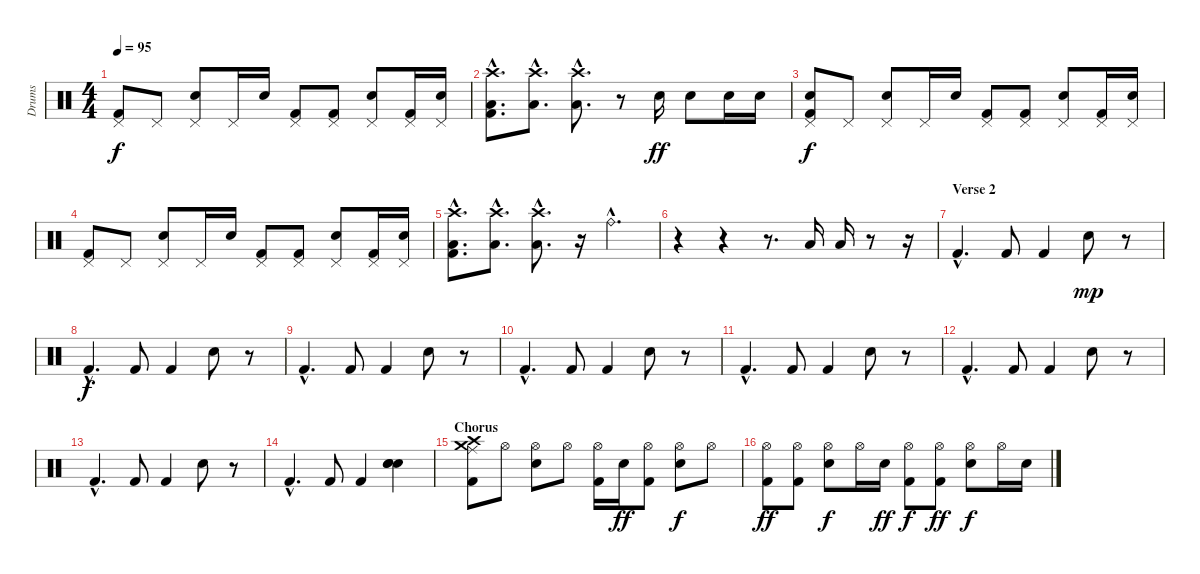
\track ("Drums" "Drums") {instrument percussion}
\staff {score}
\articulation defaults
\ts (4 4)
\tempo 95
\clef neutral
\ks c
("Pedal Hi-Hat (hit)" "Kick (hit) 2").8{dy f} "Pedal Hi-Hat (hit)".8 ("Pedal Hi-Hat (hit)" "Electric Snare (hit)").8 "Pedal Hi-Hat (hit)".16 "Electric Snare (hit)".16 ("Pedal Hi-Hat (hit)" "Kick (hit) 2").8 ("Pedal Hi-Hat (hit)" "Kick (hit) 2").8 ("Pedal Hi-Hat (hit)" "Electric Snare (hit)").8 ("Pedal Hi-Hat (hit)" "Kick (hit) 2").16 ("Pedal Hi-Hat (hit)" "Electric Snare (hit)").16 |
("Crash high (hit)"{hac} "Low Tom (hit)"{hac} "Kick (hit) 2"{hac}).8{d} ("Crash high (hit)"{hac} "Low Tom (hit)"{hac}).8{d} ("Crash high (hit)"{hac} "Low Tom (hit)"{hac}).8{d} r.8 "Electric Snare (hit)".16{dy ff} "Electric Snare (hit)".8 "Electric Snare (hit)".16 "Electric Snare (hit)".16 |
("Pedal Hi-Hat (hit)" "Electric Snare (hit)" "Kick (hit) 2").8{dy f} "Pedal Hi-Hat (hit)".8 ("Pedal Hi-Hat (hit)" "Electric Snare (hit)").8 "Pedal Hi-Hat (hit)".16 "Electric Snare (hit)".16 ("Pedal Hi-Hat (hit)" "Kick (hit) 2").8 ("Pedal Hi-Hat (hit)" "Kick (hit) 2").8 ("Pedal Hi-Hat (hit)" "Electric Snare (hit)").8 ("Pedal Hi-Hat (hit)" "Kick (hit) 2").16 ("Pedal Hi-Hat (hit)" "Electric Snare (hit)").16 |
("Pedal Hi-Hat (hit)" "Kick (hit) 2").8 "Pedal Hi-Hat (hit)".8 ("Pedal Hi-Hat (hit)" "Electric Snare (hit)").8 "Pedal Hi-Hat (hit)".16 "Electric Snare (hit)".16 ("Pedal Hi-Hat (hit)" "Kick (hit) 2").8 ("Pedal Hi-Hat (hit)" "Kick (hit) 2").8 ("Pedal Hi-Hat (hit)" "Electric Snare (hit)").8 ("Pedal Hi-Hat (hit)" "Kick (hit) 2").16 ("Pedal Hi-Hat (hit)" "Electric Snare (hit)").16 |
("Crash high (hit)"{hac} "Low Tom (hit)"{hac} "Kick (hit) 2"{hac}).8{d} ("Crash high (hit)"{hac} "Low Tom (hit)"{hac}).8{d} ("Crash high (hit)"{hac} "Low Tom (hit)"{hac}).8{d} r.16 "Ride (bell)"{hac}.4{d} |
r.4 r.4 r.8{d} "Low Tom (hit)".16 "Low Tom (hit)".16 r.8 r.16 |
\section ("" "Verse 2")
"Kick (hit) 2"{hac}.4{d} "Kick (hit) 2".8 "Kick (hit) 2".4 "Electric Snare (hit)".8{dy mp} r.8 |
"Kick (hit) 2"{hac}.4{d dy f} "Kick (hit) 2".8 "Kick (hit) 2".4 "Electric Snare (hit)".8 r.8 |
"Kick (hit) 2"{hac}.4{d} "Kick (hit) 2".8 "Kick (hit) 2".4 "Electric Snare (hit)".8 r.8 |
"Kick (hit) 2"{hac}.4{d} "Kick (hit) 2".8 "Kick (hit) 2".4 "Electric Snare (hit)".8 r.8 |
"Kick (hit) 2"{hac}.4{d} "Kick (hit) 2".8 "Kick (hit) 2".4 "Electric Snare (hit)".8 r.8 |
"Kick (hit) 2"{hac}.4{d} "Kick (hit) 2".8 "Kick (hit) 2".4 "Electric Snare (hit)".8 r.8 |
"Kick (hit) 2"{hac}.4{d} "Kick (hit) 2".8 "Kick (hit) 2".4 "Electric Snare (hit)".8 r.8 |
"Kick (hit) 2"{hac}.4{d} "Kick (hit) 2".8 "Kick (hit) 2".4 ("Electric Snare (hit)" "Electric Snare (hit)" "Electric Snare (hit)").4 |
\section ("" "Chorus")
("Crash high (hit)" "Ride (middle)" "Crash medium (hit)" "Kick (hit) 2").8 "Hi-Hat (open)".8 ("Hi-Hat (open)" "Electric Snare (hit)").8 "Hi-Hat (open)".8 ("Hi-Hat (open)" "Kick (hit) 2").16 "Electric Snare (hit)".16{dy ff} ("Hi-Hat (open)" "Kick (hit) 2").8 ("Hi-Hat (open)" "Electric Snare (hit)").8{dy f} "Hi-Hat (open)".8 |
("Hi-Hat (open)" "Kick (hit) 2").8{dy ff} ("Hi-Hat (open)" "Kick (hit) 2").8 ("Hi-Hat (open)" "Electric Snare (hit)").8{dy f} "Hi-Hat (open)".16 "Electric Snare (hit)".16{dy ff} ("Hi-Hat (open)" "Kick (hit) 2").8{dy f} ("Hi-Hat (open)" "Kick (hit) 2").8{dy ff} ("Hi-Hat (open)" "Electric Snare (hit)").8{dy f} "Hi-Hat (open)".16 "Electric Snare (hit)".16
